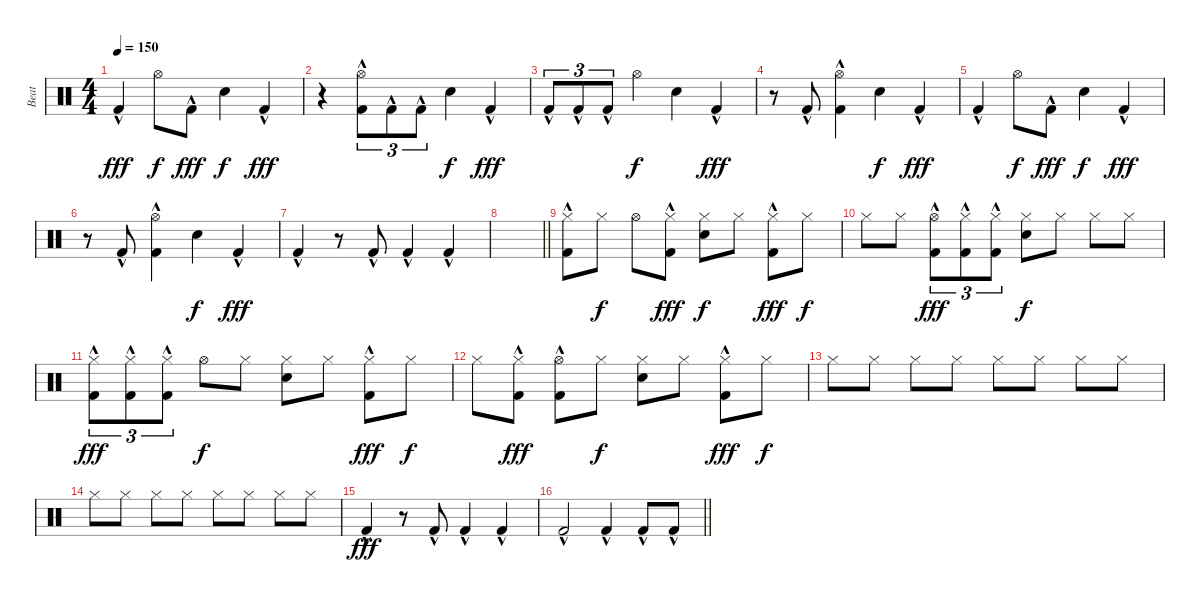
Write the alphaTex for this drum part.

\track ("Beat" "Beat") {instrument percussion}
\staff {score}
\articulation defaults
\ts (4 4)
\tempo 150
\clef neutral
\ks c "Kick (hit) 2"{hac}.4{dy fff} "Hi-Hat (open)".8{dy f} "Kick (hit) 2"{hac}.8{dy fff} "Hand Clap (hit)".4{dy f} "Kick (hit) 2"{hac}.4{dy fff}
|
r.4 ("Hi-Hat (open)" "Kick (hit) 2"{hac}).8{tu (3 2)} "Kick (hit) 2"{hac}.8{tu (3 2)} "Kick (hit) 2"{hac}.8{tu (3 2)} "Hand Clap (hit)".4{dy f} "Kick (hit) 2"{hac}.4{dy fff} |
"Kick (hit) 2"{hac}.8{tu (3 2)} "Kick (hit) 2"{hac}.8{tu (3 2)} "Kick (hit) 2"{hac}.8{tu (3 2)} "Hi-Hat (open)".4{dy f} "Hand Clap (hit)".4 "Kick (hit) 2"{hac}.4{dy fff} |
r.8 "Kick (hit) 2"{hac}.8 ("Hi-Hat (open)" "Kick (hit) 2"{hac}).4 "Hand Clap (hit)".4{dy f} "Kick (hit) 2"{hac}.4{dy fff} |
"Kick (hit) 2"{hac}.4 "Hi-Hat (open)".8{dy f} "Kick (hit) 2"{hac}.8{dy fff} "Hand Clap (hit)".4{dy f} "Kick (hit) 2"{hac}.4{dy fff} |
r.8 "Kick (hit) 2"{hac}.8 ("Hi-Hat (open)" "Kick (hit) 2"{hac}).4 "Hand Clap (hit)".4{dy f} "Kick (hit) 2"{hac}.4{dy fff} |
"Kick (hit) 2"{hac}.4 r.8 "Kick (hit) 2"{hac}.8 "Kick (hit) 2"{hac}.4 "Kick (hit) 2"{hac}.4 |
\barLineRight lightlight
|
("Hi-Hat (closed)" "Kick (hit) 2"{hac}).8 "Hi-Hat (closed)".8{dy f} "Hi-Hat (open)".8 ("Hi-Hat (closed)" "Kick (hit) 2"{hac}).8{dy fff} ("Hi-Hat (closed)" "Hand Clap (hit)").8{dy f} "Hi-Hat (closed)".8 ("Hi-Hat (closed)" "Kick (hit) 2"{hac}).8{dy fff} "Hi-Hat (closed)".8{dy f} |
"Hi-Hat (closed)".8 "Hi-Hat (closed)".8 ("Hi-Hat (open)" "Kick (hit) 2"{hac}).8{tu (3 2) dy fff} ("Hi-Hat (closed)" "Kick (hit) 2"{hac}).8{tu (3 2)} ("Hi-Hat (closed)" "Kick (hit) 2"{hac}).8{tu (3 2)} ("Hi-Hat (closed)" "Hand Clap (hit)").8{dy f} "Hi-Hat (closed)".8 "Hi-Hat (closed)".8 "Hi-Hat (closed)".8 |
("Hi-Hat (closed)" "Kick (hit) 2"{hac}).8{tu (3 2) dy fff} ("Hi-Hat (closed)" "Kick (hit) 2"{hac}).8{tu (3 2)} ("Hi-Hat (closed)" "Kick (hit) 2"{hac}).8{tu (3 2)} "Hi-Hat (open)".8{dy f} "Hi-Hat (closed)".8 ("Hi-Hat (closed)" "Hand Clap (hit)").8 "Hi-Hat (closed)".8 ("Hi-Hat (closed)" "Kick (hit) 2"{hac}).8{dy fff} "Hi-Hat (closed)".8{dy f} |
"Hi-Hat (closed)".8 ("Hi-Hat (closed)" "Kick (hit) 2"{hac}).8{dy fff} ("Hi-Hat (open)" "Kick (hit) 2"{hac}).8 "Hi-Hat (closed)".8{dy f} ("Hi-Hat (closed)" "Hand Clap (hit)").8 "Hi-Hat (closed)".8 ("Hi-Hat (closed)" "Kick (hit) 2"{hac}).8{dy fff} "Hi-Hat (closed)".8{dy f} |
"Hi-Hat (closed)".8 "Hi-Hat (closed)".8 "Hi-Hat (closed)".8 "Hi-Hat (closed)".8 "Hi-Hat (closed)".8 "Hi-Hat (closed)".8 "Hi-Hat (closed)".8 "Hi-Hat (closed)".8 |
"Hi-Hat (closed)".8 "Hi-Hat (closed)".8 "Hi-Hat (closed)".8 "Hi-Hat (closed)".8 "Hi-Hat (closed)".8 "Hi-Hat (closed)".8 "Hi-Hat (closed)".8 "Hi-Hat (closed)".8 |
"Kick (hit) 2"{hac}.4{dy fff} r.8 "Kick (hit) 2"{hac}.8 "Kick (hit) 2"{hac}.4 "Kick (hit) 2"{hac}.4 |
\barLineRight lightlight "Kick (hit) 2"{hac}.2 "Kick (hit) 2"{hac}.4 "Kick (hit) 2"{hac}.8 "Kick (hit) 2"{hac}.8
